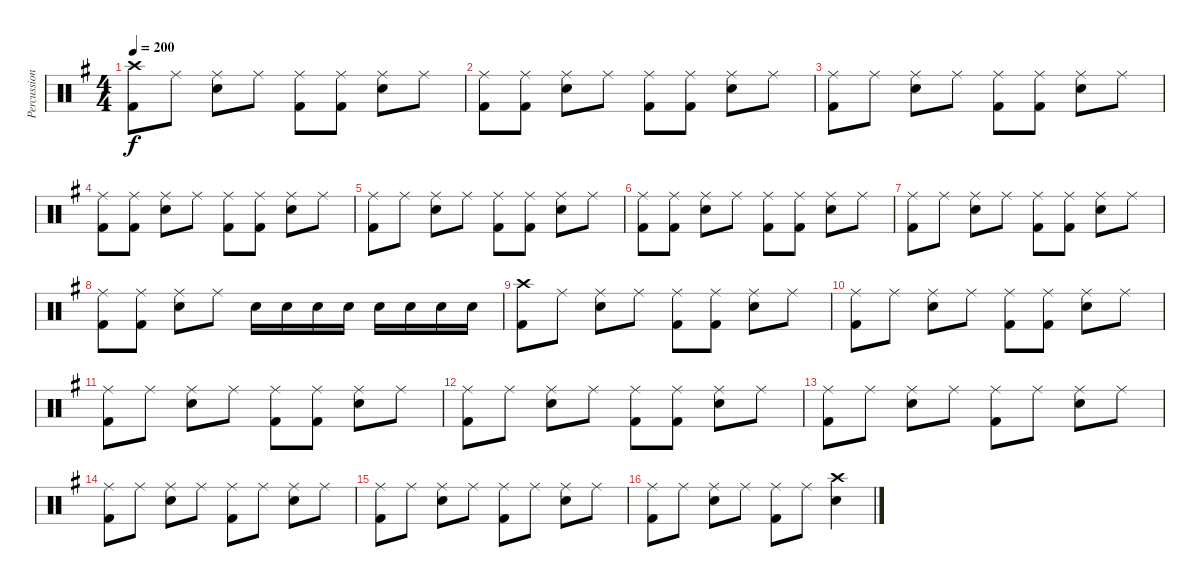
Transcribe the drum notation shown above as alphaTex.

\track ("Percussion" "Percussion") {instrument percussion}
\staff {score}
\articulation defaults
\ts (4 4)
\tempo 200
\clef neutral
\ks eminor
("Crash high (hit)" "Kick (hit) 2").8{dy f} "Ride (middle)".8 ("Ride (middle)" "Snare (hit) 2").8 "Ride (middle)".8 ("Ride (middle)" "Kick (hit) 2").8 ("Ride (middle)" "Kick (hit) 2").8 ("Ride (middle)" "Snare (hit) 2").8 "Ride (middle)".8 |
("Ride (middle)" "Kick (hit) 2").8 ("Ride (middle)" "Kick (hit) 2").8 ("Ride (middle)" "Snare (hit) 2").8 "Ride (middle)".8 ("Ride (middle)" "Kick (hit) 2").8 ("Ride (middle)" "Kick (hit) 2").8 ("Ride (middle)" "Snare (hit) 2").8 "Ride (middle)".8 |
("Ride (middle)" "Kick (hit) 2").8 "Ride (middle)".8 ("Ride (middle)" "Snare (hit) 2").8 "Ride (middle)".8 ("Ride (middle)" "Kick (hit) 2").8 ("Ride (middle)" "Kick (hit) 2").8 ("Ride (middle)" "Snare (hit) 2").8 "Ride (middle)".8 |
("Ride (middle)" "Kick (hit) 2").8 ("Ride (middle)" "Kick (hit) 2").8 ("Ride (middle)" "Snare (hit) 2").8 "Ride (middle)".8 ("Ride (middle)" "Kick (hit) 2").8 ("Ride (middle)" "Kick (hit) 2").8 ("Ride (middle)" "Snare (hit) 2").8 "Ride (middle)".8 |
("Ride (middle)" "Kick (hit) 2").8 "Ride (middle)".8 ("Ride (middle)" "Snare (hit) 2").8 "Ride (middle)".8 ("Ride (middle)" "Kick (hit) 2").8 ("Ride (middle)" "Kick (hit) 2").8 ("Ride (middle)" "Snare (hit) 2").8 "Ride (middle)".8 |
("Ride (middle)" "Kick (hit) 2").8 ("Ride (middle)" "Kick (hit) 2").8 ("Ride (middle)" "Snare (hit) 2").8 "Ride (middle)".8 ("Ride (middle)" "Kick (hit) 2").8 ("Ride (middle)" "Kick (hit) 2").8 ("Ride (middle)" "Snare (hit) 2").8 "Ride (middle)".8 |
("Ride (middle)" "Kick (hit) 2").8 "Ride (middle)".8 ("Ride (middle)" "Snare (hit) 2").8 "Ride (middle)".8 ("Ride (middle)" "Kick (hit) 2").8 ("Ride (middle)" "Kick (hit) 2").8 ("Ride (middle)" "Snare (hit) 2").8 "Ride (middle)".8 |
("Ride (middle)" "Kick (hit) 2").8 ("Ride (middle)" "Kick (hit) 2").8 ("Ride (middle)" "Snare (hit) 2").8 "Ride (middle)".8 "Snare (hit) 2".16 "Snare (hit) 2".16 "Snare (hit) 2".16 "Snare (hit) 2".16 "Snare (hit) 2".16 "Snare (hit) 2".16 "Snare (hit) 2".16 "Snare (hit) 2".16 |
("Crash high (hit)" "Kick (hit) 2").8 "Ride (middle)".8 ("Ride (middle)" "Snare (hit) 2").8 "Ride (middle)".8 ("Ride (middle)" "Kick (hit) 2").8 ("Ride (middle)" "Kick (hit) 2").8 ("Ride (middle)" "Snare (hit) 2").8 "Ride (middle)".8 |
("Ride (middle)" "Kick (hit) 2").8 "Ride (middle)".8 ("Ride (middle)" "Snare (hit) 2").8 "Ride (middle)".8 ("Ride (middle)" "Kick (hit) 2").8 ("Ride (middle)" "Kick (hit) 2").8 ("Ride (middle)" "Snare (hit) 2").8 "Ride (middle)".8 |
("Ride (middle)" "Kick (hit) 2").8 "Ride (middle)".8 ("Ride (middle)" "Snare (hit) 2").8 "Ride (middle)".8 ("Ride (middle)" "Kick (hit) 2").8 ("Ride (middle)" "Kick (hit) 2").8 ("Ride (middle)" "Snare (hit) 2").8 "Ride (middle)".8 |
("Ride (middle)" "Kick (hit) 2").8 "Ride (middle)".8 ("Ride (middle)" "Snare (hit) 2").8 "Ride (middle)".8 ("Ride (middle)" "Kick (hit) 2").8 ("Ride (middle)" "Kick (hit) 2").8 ("Ride (middle)" "Snare (hit) 2").8 "Ride (middle)".8 |
("Ride (middle)" "Kick (hit) 2").8 "Ride (middle)".8 ("Ride (middle)" "Snare (hit) 2").8 "Ride (middle)".8 ("Ride (middle)" "Kick (hit) 2").8 "Ride (middle)".8 ("Ride (middle)" "Snare (hit) 2").8 "Ride (middle)".8 |
("Ride (middle)" "Kick (hit) 2").8 "Ride (middle)".8 ("Ride (middle)" "Snare (hit) 2").8 "Ride (middle)".8 ("Ride (middle)" "Kick (hit) 2").8 "Ride (middle)".8 ("Ride (middle)" "Snare (hit) 2").8 "Ride (middle)".8 |
("Ride (middle)" "Kick (hit) 2").8 "Ride (middle)".8 ("Ride (middle)" "Snare (hit) 2").8 "Ride (middle)".8 ("Ride (middle)" "Kick (hit) 2").8 "Ride (middle)".8 ("Ride (middle)" "Snare (hit) 2").8 "Ride (middle)".8 |
("Ride (middle)" "Kick (hit) 2").8 "Ride (middle)".8 ("Ride (middle)" "Snare (hit) 2").8 "Ride (middle)".8 ("Ride (middle)" "Kick (hit) 2").8 "Ride (middle)".8 ("Crash high (hit)" "Snare (hit) 2").4
